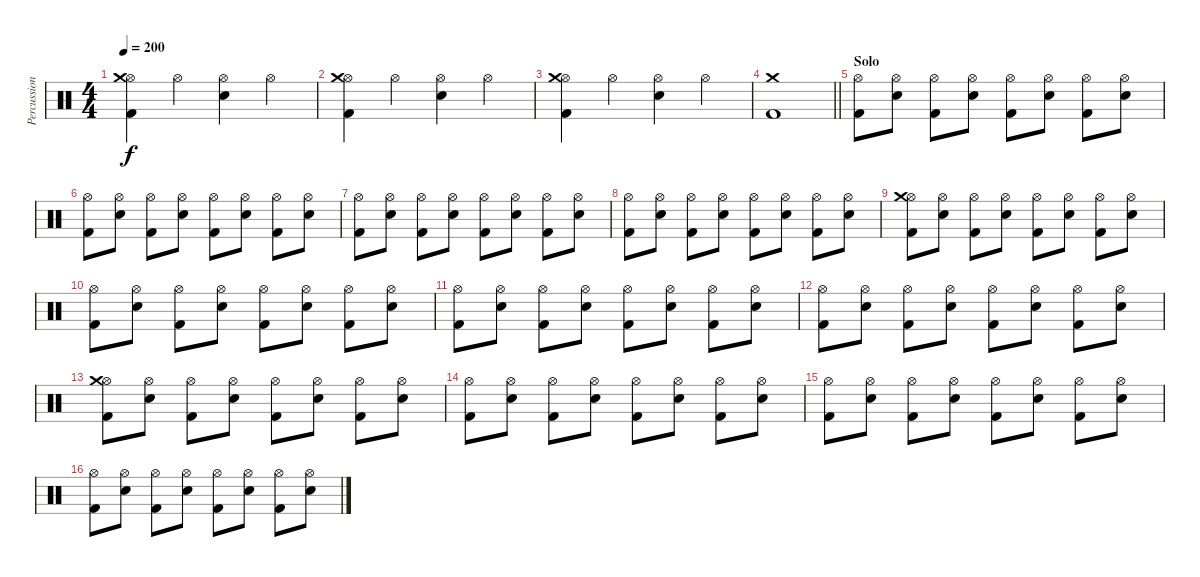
\track ("Percussion" "Percussion") {instrument percussion}
\staff {score}
\articulation defaults
\ts (4 4)
\tempo 200
\clef neutral
\ks c
("Kick (hit) 2" "Hi-Hat (open)" "Crash medium (hit)").4{dy f} "Hi-Hat (open)".4 ("Electric Snare (hit)" "Hi-Hat (open)").4 "Hi-Hat (open)".4 |
("Kick (hit) 2" "Hi-Hat (open)" "Crash medium (hit)").4 "Hi-Hat (open)".4 ("Electric Snare (hit)" "Hi-Hat (open)").4 "Hi-Hat (open)".4 |
("Kick (hit) 2" "Hi-Hat (open)" "Crash medium (hit)").4 "Hi-Hat (open)".4 ("Electric Snare (hit)" "Hi-Hat (open)").4 "Hi-Hat (open)".4 |
\barLineRight lightlight
("Crash medium (hit)" "Kick (hit) 2").1 |
\section ("" "Solo")
("Kick (hit) 2" "Hi-Hat (open)").8 ("Electric Snare (hit)" "Hi-Hat (open)").8 ("Kick (hit) 2" "Hi-Hat (open)").8 ("Electric Snare (hit)" "Hi-Hat (open)").8 ("Kick (hit) 2" "Hi-Hat (open)").8 ("Electric Snare (hit)" "Hi-Hat (open)").8 ("Kick (hit) 2" "Hi-Hat (open)").8 ("Electric Snare (hit)" "Hi-Hat (open)").8 |
("Kick (hit) 2" "Hi-Hat (open)").8 ("Electric Snare (hit)" "Hi-Hat (open)").8 ("Kick (hit) 2" "Hi-Hat (open)").8 ("Electric Snare (hit)" "Hi-Hat (open)").8 ("Kick (hit) 2" "Hi-Hat (open)").8 ("Electric Snare (hit)" "Hi-Hat (open)").8 ("Kick (hit) 2" "Hi-Hat (open)").8 ("Electric Snare (hit)" "Hi-Hat (open)").8 |
("Kick (hit) 2" "Hi-Hat (open)").8 ("Electric Snare (hit)" "Hi-Hat (open)").8 ("Kick (hit) 2" "Hi-Hat (open)").8 ("Electric Snare (hit)" "Hi-Hat (open)").8 ("Kick (hit) 2" "Hi-Hat (open)").8 ("Electric Snare (hit)" "Hi-Hat (open)").8 ("Kick (hit) 2" "Hi-Hat (open)").8 ("Electric Snare (hit)" "Hi-Hat (open)").8 |
("Kick (hit) 2" "Hi-Hat (open)").8 ("Electric Snare (hit)" "Hi-Hat (open)").8 ("Kick (hit) 2" "Hi-Hat (open)").8 ("Electric Snare (hit)" "Hi-Hat (open)").8 ("Kick (hit) 2" "Hi-Hat (open)").8 ("Electric Snare (hit)" "Hi-Hat (open)").8 ("Kick (hit) 2" "Hi-Hat (open)").8 ("Electric Snare (hit)" "Hi-Hat (open)").8 |
("Kick (hit) 2" "Hi-Hat (open)" "Crash medium (hit)").8 ("Electric Snare (hit)" "Hi-Hat (open)").8 ("Kick (hit) 2" "Hi-Hat (open)").8 ("Electric Snare (hit)" "Hi-Hat (open)").8 ("Kick (hit) 2" "Hi-Hat (open)").8 ("Electric Snare (hit)" "Hi-Hat (open)").8 ("Kick (hit) 2" "Hi-Hat (open)").8 ("Electric Snare (hit)" "Hi-Hat (open)").8 |
("Kick (hit) 2" "Hi-Hat (open)").8 ("Electric Snare (hit)" "Hi-Hat (open)").8 ("Kick (hit) 2" "Hi-Hat (open)").8 ("Electric Snare (hit)" "Hi-Hat (open)").8 ("Kick (hit) 2" "Hi-Hat (open)").8 ("Electric Snare (hit)" "Hi-Hat (open)").8 ("Kick (hit) 2" "Hi-Hat (open)").8 ("Electric Snare (hit)" "Hi-Hat (open)").8 |
("Kick (hit) 2" "Hi-Hat (open)").8 ("Electric Snare (hit)" "Hi-Hat (open)").8 ("Kick (hit) 2" "Hi-Hat (open)").8 ("Electric Snare (hit)" "Hi-Hat (open)").8 ("Kick (hit) 2" "Hi-Hat (open)").8 ("Electric Snare (hit)" "Hi-Hat (open)").8 ("Kick (hit) 2" "Hi-Hat (open)").8 ("Electric Snare (hit)" "Hi-Hat (open)").8 |
("Kick (hit) 2" "Hi-Hat (open)").8 ("Electric Snare (hit)" "Hi-Hat (open)").8 ("Kick (hit) 2" "Hi-Hat (open)").8 ("Electric Snare (hit)" "Hi-Hat (open)").8 ("Kick (hit) 2" "Hi-Hat (open)").8 ("Electric Snare (hit)" "Hi-Hat (open)").8 ("Kick (hit) 2" "Hi-Hat (open)").8 ("Electric Snare (hit)" "Hi-Hat (open)").8 |
("Kick (hit) 2" "Hi-Hat (open)" "Crash medium (hit)").8 ("Electric Snare (hit)" "Hi-Hat (open)").8 ("Kick (hit) 2" "Hi-Hat (open)").8 ("Electric Snare (hit)" "Hi-Hat (open)").8 ("Kick (hit) 2" "Hi-Hat (open)").8 ("Electric Snare (hit)" "Hi-Hat (open)").8 ("Kick (hit) 2" "Hi-Hat (open)").8 ("Electric Snare (hit)" "Hi-Hat (open)").8 |
("Kick (hit) 2" "Hi-Hat (open)").8 ("Electric Snare (hit)" "Hi-Hat (open)").8 ("Kick (hit) 2" "Hi-Hat (open)").8 ("Electric Snare (hit)" "Hi-Hat (open)").8 ("Kick (hit) 2" "Hi-Hat (open)").8 ("Electric Snare (hit)" "Hi-Hat (open)").8 ("Kick (hit) 2" "Hi-Hat (open)").8 ("Electric Snare (hit)" "Hi-Hat (open)").8 |
("Kick (hit) 2" "Hi-Hat (open)").8 ("Electric Snare (hit)" "Hi-Hat (open)").8 ("Kick (hit) 2" "Hi-Hat (open)").8 ("Electric Snare (hit)" "Hi-Hat (open)").8 ("Kick (hit) 2" "Hi-Hat (open)").8 ("Electric Snare (hit)" "Hi-Hat (open)").8 ("Kick (hit) 2" "Hi-Hat (open)").8 ("Electric Snare (hit)" "Hi-Hat (open)").8 |
("Kick (hit) 2" "Hi-Hat (open)").8 ("Electric Snare (hit)" "Hi-Hat (open)").8 ("Kick (hit) 2" "Hi-Hat (open)").8 ("Electric Snare (hit)" "Hi-Hat (open)").8 ("Kick (hit) 2" "Hi-Hat (open)").8 ("Electric Snare (hit)" "Hi-Hat (open)").8 ("Kick (hit) 2" "Hi-Hat (open)").8 ("Electric Snare (hit)" "Hi-Hat (open)").8
